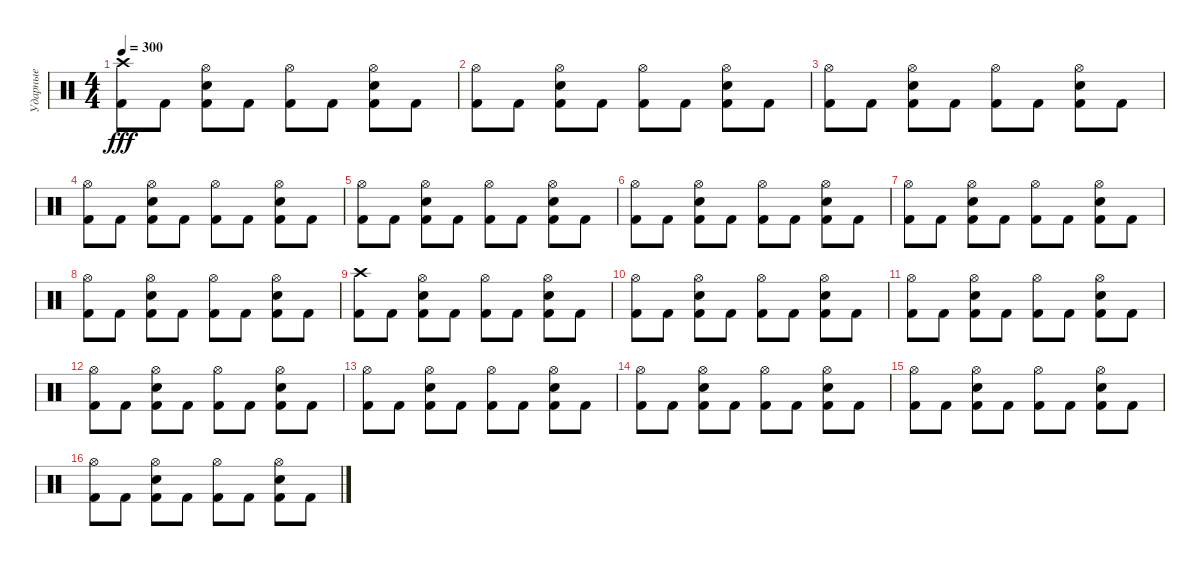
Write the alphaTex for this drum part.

\track ("Ударные" "Ударные") {instrument percussion}
\staff {score}
\articulation defaults
\ts (4 4)
\tempo 300
\clef neutral
\ks c
("Kick (hit) 2" "Crash high (hit)").8{dy fff} "Kick (hit) 2".8 ("Kick (hit) 2" "Snare (hit) 2" "Hi-Hat (open)").8 "Kick (hit) 2".8 ("Kick (hit) 2" "Hi-Hat (open)").8 "Kick (hit) 2".8 ("Kick (hit) 2" "Snare (hit) 2" "Hi-Hat (open)").8 "Kick (hit) 2".8 |
("Kick (hit) 2" "Hi-Hat (open)").8 "Kick (hit) 2".8 ("Kick (hit) 2" "Snare (hit) 2" "Hi-Hat (open)").8 "Kick (hit) 2".8 ("Kick (hit) 2" "Hi-Hat (open)").8 "Kick (hit) 2".8 ("Kick (hit) 2" "Snare (hit) 2" "Hi-Hat (open)").8 "Kick (hit) 2".8 |
("Kick (hit) 2" "Hi-Hat (open)").8 "Kick (hit) 2".8 ("Kick (hit) 2" "Snare (hit) 2" "Hi-Hat (open)").8 "Kick (hit) 2".8 ("Kick (hit) 2" "Hi-Hat (open)").8 "Kick (hit) 2".8 ("Kick (hit) 2" "Snare (hit) 2" "Hi-Hat (open)").8 "Kick (hit) 2".8 |
("Kick (hit) 2" "Hi-Hat (open)").8 "Kick (hit) 2".8 ("Kick (hit) 2" "Snare (hit) 2" "Hi-Hat (open)").8 "Kick (hit) 2".8 ("Kick (hit) 2" "Hi-Hat (open)").8 "Kick (hit) 2".8 ("Kick (hit) 2" "Snare (hit) 2" "Hi-Hat (open)").8 "Kick (hit) 2".8 |
("Kick (hit) 2" "Hi-Hat (open)").8 "Kick (hit) 2".8 ("Kick (hit) 2" "Snare (hit) 2" "Hi-Hat (open)").8 "Kick (hit) 2".8 ("Kick (hit) 2" "Hi-Hat (open)").8 "Kick (hit) 2".8 ("Kick (hit) 2" "Snare (hit) 2" "Hi-Hat (open)").8 "Kick (hit) 2".8 |
("Kick (hit) 2" "Hi-Hat (open)").8 "Kick (hit) 2".8 ("Kick (hit) 2" "Snare (hit) 2" "Hi-Hat (open)").8 "Kick (hit) 2".8 ("Kick (hit) 2" "Hi-Hat (open)").8 "Kick (hit) 2".8 ("Kick (hit) 2" "Snare (hit) 2" "Hi-Hat (open)").8 "Kick (hit) 2".8 |
("Kick (hit) 2" "Hi-Hat (open)").8 "Kick (hit) 2".8 ("Kick (hit) 2" "Snare (hit) 2" "Hi-Hat (open)").8 "Kick (hit) 2".8 ("Kick (hit) 2" "Hi-Hat (open)").8 "Kick (hit) 2".8 ("Kick (hit) 2" "Snare (hit) 2" "Hi-Hat (open)").8 "Kick (hit) 2".8 |
("Kick (hit) 2" "Hi-Hat (open)").8 "Kick (hit) 2".8 ("Kick (hit) 2" "Snare (hit) 2" "Hi-Hat (open)").8 "Kick (hit) 2".8 ("Kick (hit) 2" "Hi-Hat (open)").8 "Kick (hit) 2".8 ("Kick (hit) 2" "Snare (hit) 2" "Hi-Hat (open)").8 "Kick (hit) 2".8 |
("Kick (hit) 2" "Crash high (hit)").8 "Kick (hit) 2".8 ("Kick (hit) 2" "Snare (hit) 2" "Hi-Hat (open)").8 "Kick (hit) 2".8 ("Kick (hit) 2" "Hi-Hat (open)").8 "Kick (hit) 2".8 ("Kick (hit) 2" "Snare (hit) 2" "Hi-Hat (open)").8 "Kick (hit) 2".8 |
("Kick (hit) 2" "Hi-Hat (open)").8 "Kick (hit) 2".8 ("Kick (hit) 2" "Snare (hit) 2" "Hi-Hat (open)").8 "Kick (hit) 2".8 ("Kick (hit) 2" "Hi-Hat (open)").8 "Kick (hit) 2".8 ("Kick (hit) 2" "Snare (hit) 2" "Hi-Hat (open)").8 "Kick (hit) 2".8 |
("Kick (hit) 2" "Hi-Hat (open)").8 "Kick (hit) 2".8 ("Kick (hit) 2" "Snare (hit) 2" "Hi-Hat (open)").8 "Kick (hit) 2".8 ("Kick (hit) 2" "Hi-Hat (open)").8 "Kick (hit) 2".8 ("Kick (hit) 2" "Snare (hit) 2" "Hi-Hat (open)").8 "Kick (hit) 2".8 |
("Kick (hit) 2" "Hi-Hat (open)").8 "Kick (hit) 2".8 ("Kick (hit) 2" "Snare (hit) 2" "Hi-Hat (open)").8 "Kick (hit) 2".8 ("Kick (hit) 2" "Hi-Hat (open)").8 "Kick (hit) 2".8 ("Kick (hit) 2" "Snare (hit) 2" "Hi-Hat (open)").8 "Kick (hit) 2".8 |
("Kick (hit) 2" "Hi-Hat (open)").8 "Kick (hit) 2".8 ("Kick (hit) 2" "Snare (hit) 2" "Hi-Hat (open)").8 "Kick (hit) 2".8 ("Kick (hit) 2" "Hi-Hat (open)").8 "Kick (hit) 2".8 ("Kick (hit) 2" "Snare (hit) 2" "Hi-Hat (open)").8 "Kick (hit) 2".8 |
("Kick (hit) 2" "Hi-Hat (open)").8 "Kick (hit) 2".8 ("Kick (hit) 2" "Snare (hit) 2" "Hi-Hat (open)").8 "Kick (hit) 2".8 ("Kick (hit) 2" "Hi-Hat (open)").8 "Kick (hit) 2".8 ("Kick (hit) 2" "Snare (hit) 2" "Hi-Hat (open)").8 "Kick (hit) 2".8 |
("Kick (hit) 2" "Hi-Hat (open)").8 "Kick (hit) 2".8 ("Kick (hit) 2" "Snare (hit) 2" "Hi-Hat (open)").8 "Kick (hit) 2".8 ("Kick (hit) 2" "Hi-Hat (open)").8 "Kick (hit) 2".8 ("Kick (hit) 2" "Snare (hit) 2" "Hi-Hat (open)").8 "Kick (hit) 2".8 |
("Kick (hit) 2" "Hi-Hat (open)").8 "Kick (hit) 2".8 ("Kick (hit) 2" "Snare (hit) 2" "Hi-Hat (open)").8 "Kick (hit) 2".8 ("Kick (hit) 2" "Hi-Hat (open)").8 "Kick (hit) 2".8 ("Kick (hit) 2" "Snare (hit) 2" "Hi-Hat (open)").8 "Kick (hit) 2".8
